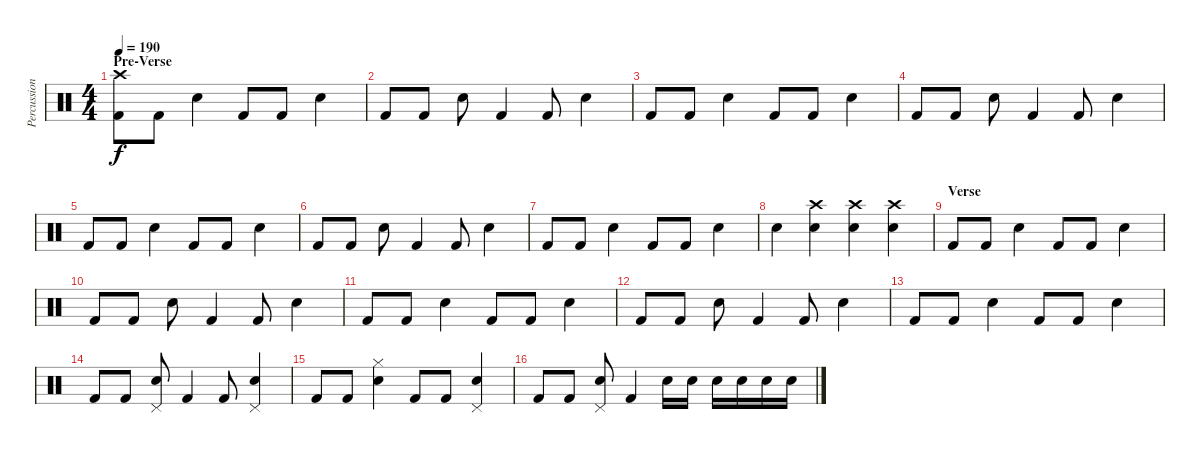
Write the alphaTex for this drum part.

\track ("Percussion" "Percussion") {instrument percussion}
\staff {score}
\articulation defaults
\ts (4 4)
\section ("" "Pre-Verse")
\tempo 190
\clef neutral
\ks c
("Kick (hit) 2" "Crash high (hit)").8{dy f} "Kick (hit) 2".8 "Snare (hit) 2".4 "Kick (hit) 2".8 "Kick (hit) 2".8 "Snare (hit) 2".4 |
"Kick (hit) 2".8 "Kick (hit) 2".8 "Snare (hit) 2".8 "Kick (hit) 2".4 "Kick (hit) 2".8 "Snare (hit) 2".4 |
"Kick (hit) 2".8 "Kick (hit) 2".8 "Snare (hit) 2".4 "Kick (hit) 2".8 "Kick (hit) 2".8 "Snare (hit) 2".4 |
"Kick (hit) 2".8 "Kick (hit) 2".8 "Snare (hit) 2".8 "Kick (hit) 2".4 "Kick (hit) 2".8 "Snare (hit) 2".4 |
"Kick (hit) 2".8 "Kick (hit) 2".8 "Snare (hit) 2".4 "Kick (hit) 2".8 "Kick (hit) 2".8 "Snare (hit) 2".4 |
"Kick (hit) 2".8 "Kick (hit) 2".8 "Snare (hit) 2".8 "Kick (hit) 2".4 "Kick (hit) 2".8 "Snare (hit) 2".4 |
"Kick (hit) 2".8 "Kick (hit) 2".8 "Snare (hit) 2".4 "Kick (hit) 2".8 "Kick (hit) 2".8 "Snare (hit) 2".4 |
"Snare (hit) 2".4 ("Snare (hit) 2" "Crash high (hit)").4 ("Snare (hit) 2" "Crash high (hit)").4 ("Snare (hit) 2" "Crash high (hit)").4 |
\section ("" "Verse")
"Kick (hit) 2".8 "Kick (hit) 2".8 "Snare (hit) 2".4 "Kick (hit) 2".8 "Kick (hit) 2".8 "Snare (hit) 2".4 |
"Kick (hit) 2".8 "Kick (hit) 2".8 "Snare (hit) 2".8 "Kick (hit) 2".4 "Kick (hit) 2".8 "Snare (hit) 2".4 |
"Kick (hit) 2".8 "Kick (hit) 2".8 "Snare (hit) 2".4 "Kick (hit) 2".8 "Kick (hit) 2".8 "Snare (hit) 2".4 |
"Kick (hit) 2".8 "Kick (hit) 2".8 "Snare (hit) 2".8 "Kick (hit) 2".4 "Kick (hit) 2".8 "Snare (hit) 2".4 |
"Kick (hit) 2".8 "Kick (hit) 2".8 "Snare (hit) 2".4 "Kick (hit) 2".8 "Kick (hit) 2".8 "Snare (hit) 2".4 |
"Kick (hit) 2".8 "Kick (hit) 2".8 ("Snare (hit) 2" "Pedal Hi-Hat (hit)").8 "Kick (hit) 2".4 "Kick (hit) 2".8 ("Snare (hit) 2" "Pedal Hi-Hat (hit)").4 |
"Kick (hit) 2".8 "Kick (hit) 2".8 ("Snare (hit) 2" "Hi-Hat (closed)").4 "Kick (hit) 2".8 "Kick (hit) 2".8 ("Snare (hit) 2" "Pedal Hi-Hat (hit)").4 |
"Kick (hit) 2".8 "Kick (hit) 2".8 ("Snare (hit) 2" "Pedal Hi-Hat (hit)").8 "Kick (hit) 2".4 "Snare (hit) 2".16 "Snare (hit) 2".16 "Snare (hit) 2".16 "Snare (hit) 2".16 "Snare (hit) 2".16 "Snare (hit) 2".16
